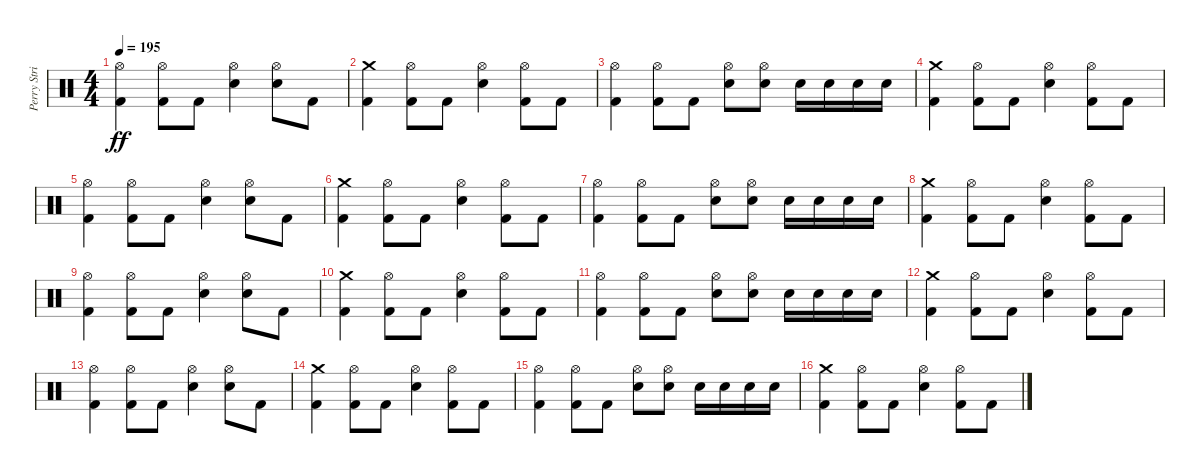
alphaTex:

\track ("Perry Strickland" "Perry Stri") {instrument percussion}
\staff {score}
\articulation defaults
\ts (4 4)
\tempo 195
\clef neutral
\ks c
("Hi-Hat (open)" "Kick (hit) 2").4{dy ff} ("Hi-Hat (open)" "Kick (hit) 2").8 "Kick (hit) 2".8 ("Hi-Hat (open)" "Snare (hit) 2").4 ("Hi-Hat (open)" "Snare (hit) 2").8 "Kick (hit) 2".8 |
("Crash medium (hit)" "Kick (hit) 2").4 ("Hi-Hat (open)" "Kick (hit) 2").8 "Kick (hit) 2".8 ("Hi-Hat (open)" "Snare (hit) 2").4 ("Hi-Hat (open)" "Kick (hit) 2").8 "Kick (hit) 2".8 |
("Hi-Hat (open)" "Kick (hit) 2").4 ("Hi-Hat (open)" "Kick (hit) 2").8 "Kick (hit) 2".8 ("Hi-Hat (open)" "Snare (hit) 2").8 ("Hi-Hat (open)" "Snare (hit) 2").8 "Snare (hit) 2".16 "Snare (hit) 2".16 "Snare (hit) 2".16 "Snare (hit) 2".16 |
("Crash medium (hit)" "Kick (hit) 2").4 ("Hi-Hat (open)" "Kick (hit) 2").8 "Kick (hit) 2".8 ("Hi-Hat (open)" "Snare (hit) 2").4 ("Hi-Hat (open)" "Kick (hit) 2").8 "Kick (hit) 2".8 |
("Hi-Hat (open)" "Kick (hit) 2").4 ("Hi-Hat (open)" "Kick (hit) 2").8 "Kick (hit) 2".8 ("Hi-Hat (open)" "Snare (hit) 2").4 ("Hi-Hat (open)" "Snare (hit) 2").8 "Kick (hit) 2".8 |
("Crash medium (hit)" "Kick (hit) 2").4 ("Hi-Hat (open)" "Kick (hit) 2").8 "Kick (hit) 2".8 ("Hi-Hat (open)" "Snare (hit) 2").4 ("Hi-Hat (open)" "Kick (hit) 2").8 "Kick (hit) 2".8 |
("Hi-Hat (open)" "Kick (hit) 2").4 ("Hi-Hat (open)" "Kick (hit) 2").8 "Kick (hit) 2".8 ("Hi-Hat (open)" "Snare (hit) 2").8 ("Hi-Hat (open)" "Snare (hit) 2").8 "Snare (hit) 2".16 "Snare (hit) 2".16 "Snare (hit) 2".16 "Snare (hit) 2".16 |
("Crash medium (hit)" "Kick (hit) 2").4 ("Hi-Hat (open)" "Kick (hit) 2").8 "Kick (hit) 2".8 ("Hi-Hat (open)" "Snare (hit) 2").4 ("Hi-Hat (open)" "Kick (hit) 2").8 "Kick (hit) 2".8 |
("Hi-Hat (open)" "Kick (hit) 2").4 ("Hi-Hat (open)" "Kick (hit) 2").8 "Kick (hit) 2".8 ("Hi-Hat (open)" "Snare (hit) 2").4 ("Hi-Hat (open)" "Snare (hit) 2").8 "Kick (hit) 2".8 |
("Crash medium (hit)" "Kick (hit) 2").4 ("Hi-Hat (open)" "Kick (hit) 2").8 "Kick (hit) 2".8 ("Hi-Hat (open)" "Snare (hit) 2").4 ("Hi-Hat (open)" "Kick (hit) 2").8 "Kick (hit) 2".8 |
("Hi-Hat (open)" "Kick (hit) 2").4 ("Hi-Hat (open)" "Kick (hit) 2").8 "Kick (hit) 2".8 ("Hi-Hat (open)" "Snare (hit) 2").8 ("Hi-Hat (open)" "Snare (hit) 2").8 "Snare (hit) 2".16 "Snare (hit) 2".16 "Snare (hit) 2".16 "Snare (hit) 2".16 |
("Crash medium (hit)" "Kick (hit) 2").4 ("Hi-Hat (open)" "Kick (hit) 2").8 "Kick (hit) 2".8 ("Hi-Hat (open)" "Snare (hit) 2").4 ("Hi-Hat (open)" "Kick (hit) 2").8 "Kick (hit) 2".8 |
("Hi-Hat (open)" "Kick (hit) 2").4 ("Hi-Hat (open)" "Kick (hit) 2").8 "Kick (hit) 2".8 ("Hi-Hat (open)" "Snare (hit) 2").4 ("Hi-Hat (open)" "Snare (hit) 2").8 "Kick (hit) 2".8 |
("Crash medium (hit)" "Kick (hit) 2").4 ("Hi-Hat (open)" "Kick (hit) 2").8 "Kick (hit) 2".8 ("Hi-Hat (open)" "Snare (hit) 2").4 ("Hi-Hat (open)" "Kick (hit) 2").8 "Kick (hit) 2".8 |
("Hi-Hat (open)" "Kick (hit) 2").4 ("Hi-Hat (open)" "Kick (hit) 2").8 "Kick (hit) 2".8 ("Hi-Hat (open)" "Snare (hit) 2").8 ("Hi-Hat (open)" "Snare (hit) 2").8 "Snare (hit) 2".16 "Snare (hit) 2".16 "Snare (hit) 2".16 "Snare (hit) 2".16 |
("Crash medium (hit)" "Kick (hit) 2").4 ("Hi-Hat (open)" "Kick (hit) 2").8 "Kick (hit) 2".8 ("Hi-Hat (open)" "Snare (hit) 2").4 ("Hi-Hat (open)" "Kick (hit) 2").8 "Kick (hit) 2".8
